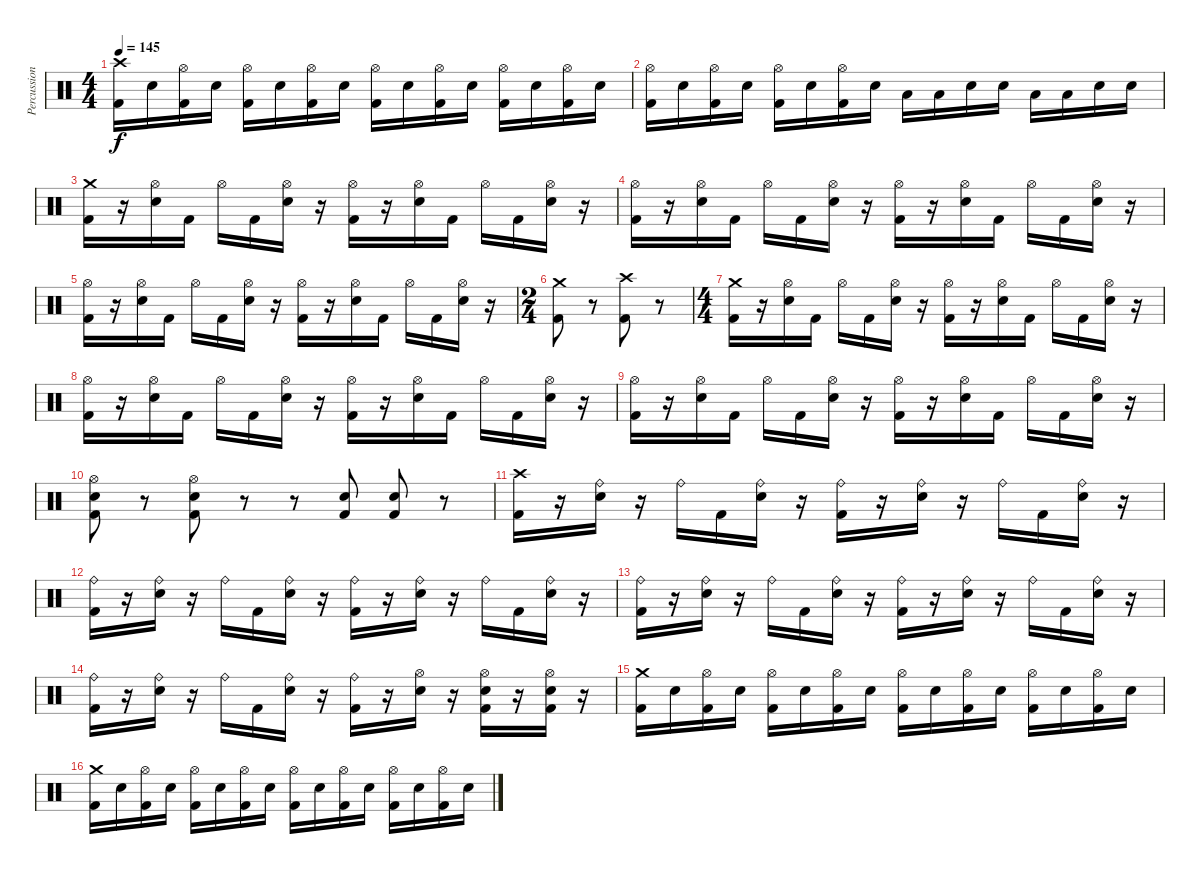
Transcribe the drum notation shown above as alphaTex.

\track ("Percussion" "Percussion") {instrument percussion}
\staff {score}
\articulation defaults
\ts (4 4)
\tempo 145
\clef neutral
\ks c
("Crash high (hit)" "Kick (hit) 2").16{dy f} "Electric Snare (hit)".16 ("Hi-Hat (open)" "Kick (hit) 2").16 "Electric Snare (hit)".16 ("Hi-Hat (open)" "Kick (hit) 2").16 "Electric Snare (hit)".16 ("Hi-Hat (open)" "Kick (hit) 2").16 "Electric Snare (hit)".16 ("Hi-Hat (open)" "Kick (hit) 2").16 "Electric Snare (hit)".16 ("Hi-Hat (open)" "Kick (hit) 2").16 "Electric Snare (hit)".16 ("Hi-Hat (open)" "Kick (hit) 2").16 "Electric Snare (hit)".16 ("Hi-Hat (open)" "Kick (hit) 2").16 "Electric Snare (hit)".16 |
("Hi-Hat (open)" "Kick (hit) 2").16 "Electric Snare (hit)".16 ("Hi-Hat (open)" "Kick (hit) 2").16 "Electric Snare (hit)".16 ("Hi-Hat (open)" "Kick (hit) 2").16 "Electric Snare (hit)".16 ("Hi-Hat (open)" "Kick (hit) 2").16 "Electric Snare (hit)".16 "Low Tom (hit)".16 "Low Tom (hit)".16 "Electric Snare (hit)".16 "Electric Snare (hit)".16 "Low Tom (hit)".16 "Low Tom (hit)".16 "Electric Snare (hit)".16 "Electric Snare (hit)".16 |
("Crash medium (hit)" "Kick (hit) 2").16 r.16 ("Hi-Hat (open)" "Electric Snare (hit)").16 "Kick (hit) 2".16 "Hi-Hat (open)".16 "Kick (hit) 2".16 ("Hi-Hat (open)" "Electric Snare (hit)").16 r.16 ("Hi-Hat (open)" "Kick (hit) 2").16 r.16 ("Hi-Hat (open)" "Electric Snare (hit)").16 "Kick (hit) 2".16 "Hi-Hat (open)".16 "Kick (hit) 2".16 ("Hi-Hat (open)" "Electric Snare (hit)").16 r.16 |
("Hi-Hat (open)" "Kick (hit) 2").16 r.16 ("Hi-Hat (open)" "Electric Snare (hit)").16 "Kick (hit) 2".16 "Hi-Hat (open)".16 "Kick (hit) 2".16 ("Hi-Hat (open)" "Electric Snare (hit)").16 r.16 ("Hi-Hat (open)" "Kick (hit) 2").16 r.16 ("Hi-Hat (open)" "Electric Snare (hit)").16 "Kick (hit) 2".16 "Hi-Hat (open)".16 "Kick (hit) 2".16 ("Hi-Hat (open)" "Electric Snare (hit)").16 r.16 |
("Hi-Hat (open)" "Kick (hit) 2").16 r.16 ("Hi-Hat (open)" "Electric Snare (hit)").16 "Kick (hit) 2".16 "Hi-Hat (open)".16 "Kick (hit) 2".16 ("Hi-Hat (open)" "Electric Snare (hit)").16 r.16 ("Hi-Hat (open)" "Kick (hit) 2").16 r.16 ("Hi-Hat (open)" "Electric Snare (hit)").16 "Kick (hit) 2".16 "Hi-Hat (open)".16 "Kick (hit) 2".16 ("Hi-Hat (open)" "Electric Snare (hit)").16 r.16 |
\ts (2 4)
("Crash medium (hit)" "Kick (hit) 2").8 r.8 ("Crash high (hit)" "Kick (hit) 2").8 r.8 |
\ts (4 4)
("Crash medium (hit)" "Kick (hit) 2").16 r.16 ("Hi-Hat (open)" "Electric Snare (hit)").16 "Kick (hit) 2".16 "Hi-Hat (open)".16 "Kick (hit) 2".16 ("Hi-Hat (open)" "Electric Snare (hit)").16 r.16 ("Hi-Hat (open)" "Kick (hit) 2").16 r.16 ("Hi-Hat (open)" "Electric Snare (hit)").16 "Kick (hit) 2".16 "Hi-Hat (open)".16 "Kick (hit) 2".16 ("Hi-Hat (open)" "Electric Snare (hit)").16 r.16 |
("Hi-Hat (open)" "Kick (hit) 2").16 r.16 ("Hi-Hat (open)" "Electric Snare (hit)").16 "Kick (hit) 2".16 "Hi-Hat (open)".16 "Kick (hit) 2".16 ("Hi-Hat (open)" "Electric Snare (hit)").16 r.16 ("Hi-Hat (open)" "Kick (hit) 2").16 r.16 ("Hi-Hat (open)" "Electric Snare (hit)").16 "Kick (hit) 2".16 "Hi-Hat (open)".16 "Kick (hit) 2".16 ("Hi-Hat (open)" "Electric Snare (hit)").16 r.16 |
("Hi-Hat (open)" "Kick (hit) 2").16 r.16 ("Hi-Hat (open)" "Electric Snare (hit)").16 "Kick (hit) 2".16 "Hi-Hat (open)".16 "Kick (hit) 2".16 ("Hi-Hat (open)" "Electric Snare (hit)").16 r.16 ("Hi-Hat (open)" "Kick (hit) 2").16 r.16 ("Hi-Hat (open)" "Electric Snare (hit)").16 "Kick (hit) 2".16 "Hi-Hat (open)".16 "Kick (hit) 2".16 ("Hi-Hat (open)" "Electric Snare (hit)").16 r.16 |
("Hi-Hat (open)" "Electric Snare (hit)" "Kick (hit) 2").8 r.8 ("Hi-Hat (open)" "Electric Snare (hit)" "Kick (hit) 2").8 r.8 r.8 ("Electric Snare (hit)" "Kick (hit) 2").8 ("Electric Snare (hit)" "Kick (hit) 2").8 r.8 |
("Crash high (hit)" "Kick (hit) 2").16 r.16 ("Ride (bell)" "Electric Snare (hit)").16 r.16 "Ride (bell)".16 "Kick (hit) 2".16 ("Ride (bell)" "Electric Snare (hit)").16 r.16 ("Ride (bell)" "Kick (hit) 2").16 r.16 ("Ride (bell)" "Electric Snare (hit)").16 r.16 "Ride (bell)".16 "Kick (hit) 2".16 ("Ride (bell)" "Electric Snare (hit)").16 r.16 |
("Ride (bell)" "Kick (hit) 2").16 r.16 ("Ride (bell)" "Electric Snare (hit)").16 r.16 "Ride (bell)".16 "Kick (hit) 2".16 ("Ride (bell)" "Electric Snare (hit)").16 r.16 ("Ride (bell)" "Kick (hit) 2").16 r.16 ("Ride (bell)" "Electric Snare (hit)").16 r.16 "Ride (bell)".16 "Kick (hit) 2".16 ("Ride (bell)" "Electric Snare (hit)").16 r.16 |
("Ride (bell)" "Kick (hit) 2").16 r.16 ("Ride (bell)" "Electric Snare (hit)").16 r.16 "Ride (bell)".16 "Kick (hit) 2".16 ("Ride (bell)" "Electric Snare (hit)").16 r.16 ("Ride (bell)" "Kick (hit) 2").16 r.16 ("Ride (bell)" "Electric Snare (hit)").16 r.16 "Ride (bell)".16 "Kick (hit) 2".16 ("Ride (bell)" "Electric Snare (hit)").16 r.16 |
("Ride (bell)" "Kick (hit) 2").16 r.16 ("Ride (bell)" "Electric Snare (hit)").16 r.16 "Ride (bell)".16 "Kick (hit) 2".16 ("Ride (bell)" "Electric Snare (hit)").16 r.16 ("Ride (bell)" "Kick (hit) 2").16 r.16 ("Hi-Hat (open)" "Electric Snare (hit)").16 r.16 ("Hi-Hat (open)" "Electric Snare (hit)" "Kick (hit) 2").16 r.16 ("Hi-Hat (open)" "Electric Snare (hit)" "Kick (hit) 2").16 r.16 |
("Crash medium (hit)" "Kick (hit) 2").16 "Electric Snare (hit)".16 ("Hi-Hat (open)" "Kick (hit) 2").16 "Electric Snare (hit)".16 ("Hi-Hat (open)" "Kick (hit) 2").16 "Electric Snare (hit)".16 ("Hi-Hat (open)" "Kick (hit) 2").16 "Electric Snare (hit)".16 ("Hi-Hat (open)" "Kick (hit) 2").16 "Electric Snare (hit)".16 ("Hi-Hat (open)" "Kick (hit) 2").16 "Electric Snare (hit)".16 ("Hi-Hat (open)" "Kick (hit) 2").16 "Electric Snare (hit)".16 ("Hi-Hat (open)" "Kick (hit) 2").16 "Electric Snare (hit)".16 |
("Crash medium (hit)" "Kick (hit) 2").16 "Electric Snare (hit)".16 ("Hi-Hat (open)" "Kick (hit) 2").16 "Electric Snare (hit)".16 ("Hi-Hat (open)" "Kick (hit) 2").16 "Electric Snare (hit)".16 ("Hi-Hat (open)" "Kick (hit) 2").16 "Electric Snare (hit)".16 ("Hi-Hat (open)" "Kick (hit) 2").16 "Electric Snare (hit)".16 ("Hi-Hat (open)" "Kick (hit) 2").16 "Electric Snare (hit)".16 ("Hi-Hat (open)" "Kick (hit) 2").16 "Electric Snare (hit)".16 ("Hi-Hat (open)" "Kick (hit) 2").16 "Electric Snare (hit)".16
